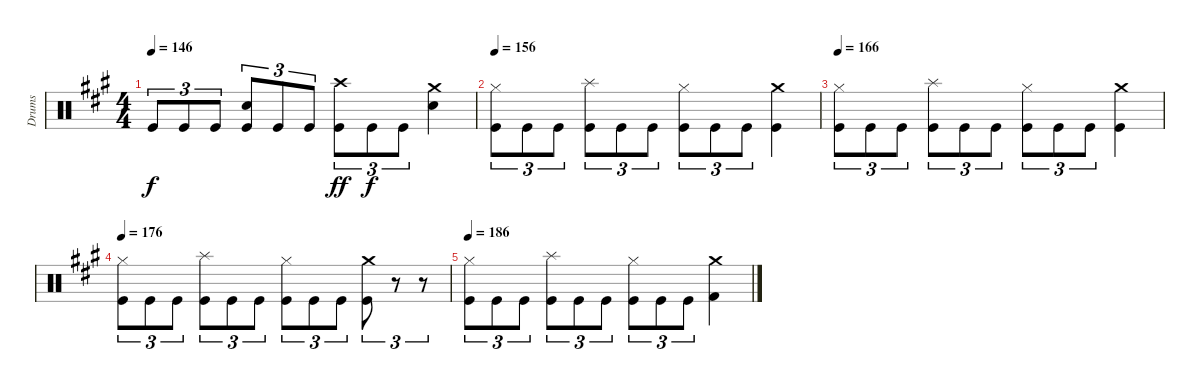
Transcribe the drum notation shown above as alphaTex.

\track ("Drums" "Drums") {instrument percussion}
\staff {score}
\articulation defaults
\ts (4 4)
\tempo 146
\clef neutral
\ks a "Kick (hit)".8{tu (3 2) dy f} "Kick (hit)".8{tu (3 2)} "Kick (hit)".8{tu (3 2)}
("Snare (hit) 2" "Kick (hit)").8{tu (3 2)} "Kick (hit)".8{tu (3 2)} "Kick (hit)".8{tu (3 2)} ("Crash high (hit)" "Kick (hit)").8{tu (3 2) dy ff} "Kick (hit)".8{tu (3 2) dy f} "Kick (hit)".8{tu (3 2)} ("Crash medium (hit)" "Snare (hit) 2").4 |
\tempo 156
("Hi-Hat (closed)" "Kick (hit)").8{tu (3 2)} "Kick (hit)".8{tu (3 2)} "Kick (hit)".8{tu (3 2)} ("Splash (hit)" "Kick (hit)").8{tu (3 2)} "Kick (hit)".8{tu (3 2)} "Kick (hit)".8{tu (3 2)} ("Hi-Hat (closed)" "Kick (hit)").8{tu (3 2)} "Kick (hit)".8{tu (3 2)} "Kick (hit)".8{tu (3 2)} ("Crash medium (hit)" "Kick (hit)").4 |
\tempo 166
("Hi-Hat (closed)" "Kick (hit)").8{tu (3 2)} "Kick (hit)".8{tu (3 2)} "Kick (hit)".8{tu (3 2)} ("Splash (hit)" "Kick (hit)").8{tu (3 2)} "Kick (hit)".8{tu (3 2)} "Kick (hit)".8{tu (3 2)} ("Hi-Hat (closed)" "Kick (hit)").8{tu (3 2)} "Kick (hit)".8{tu (3 2)} "Kick (hit)".8{tu (3 2)} ("Crash medium (hit)" "Kick (hit)").4 |
\tempo 176
("Hi-Hat (closed)" "Kick (hit)").8{tu (3 2)} "Kick (hit)".8{tu (3 2)} "Kick (hit)".8{tu (3 2)} ("Splash (hit)" "Kick (hit)").8{tu (3 2)} "Kick (hit)".8{tu (3 2)} "Kick (hit)".8{tu (3 2)} ("Hi-Hat (closed)" "Kick (hit)").8{tu (3 2)} "Kick (hit)".8{tu (3 2)} "Kick (hit)".8{tu (3 2)} ("Crash medium (hit)" "Kick (hit)").8{tu (3 2)} r.8{tu (3 2)} r.8{tu (3 2)} |
\tempo 186
("Hi-Hat (closed)" "Kick (hit)").8{tu (3 2)} "Kick (hit)".8{tu (3 2)} "Kick (hit)".8{tu (3 2)} ("Splash (hit)" "Kick (hit)").8{tu (3 2)} "Kick (hit)".8{tu (3 2)} "Kick (hit)".8{tu (3 2)} ("Hi-Hat (closed)" "Kick (hit)").8{tu (3 2)} "Kick (hit)".8{tu (3 2)} "Kick (hit)".8{tu (3 2)} ("Crash medium (hit)" "Kick (hit) 2").4
